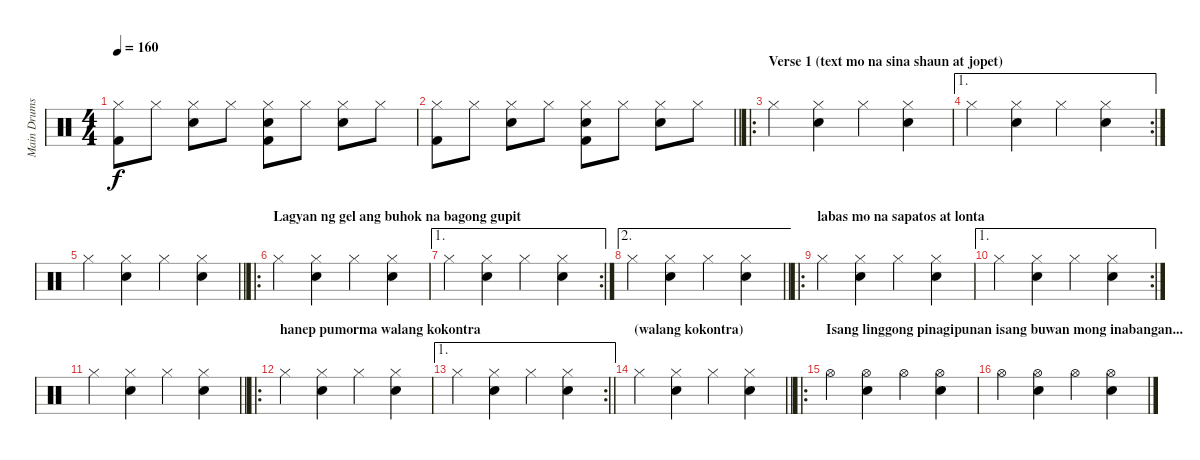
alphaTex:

\track ("Main Drumset" "Main Drums") {instrument percussion}
\staff {score}
\articulation defaults
\ts (4 4)
\tempo 160
\clef neutral
\ks c
("Hi-Hat (closed)" "Kick (hit) 2").8{dy f} "Hi-Hat (closed)".8 ("Hi-Hat (closed)" "Electric Snare (hit)").8 "Hi-Hat (closed)".8 ("Hi-Hat (closed)" "Electric Snare (hit)" "Kick (hit) 2").8 "Hi-Hat (closed)".8 ("Hi-Hat (closed)" "Electric Snare (hit)").8 "Hi-Hat (closed)".8 |
\barLineRight lightlight
("Hi-Hat (closed)" "Kick (hit) 2").8 "Hi-Hat (closed)".8 ("Hi-Hat (closed)" "Electric Snare (hit)").8 "Hi-Hat (closed)".8 ("Hi-Hat (closed)" "Electric Snare (hit)" "Kick (hit) 2").8 "Hi-Hat (closed)".8 ("Hi-Hat (closed)" "Electric Snare (hit)").8 "Hi-Hat (closed)".8 |
\ro
\section ("" "Verse 1 (text mo na sina shaun at jopet)")
"Hi-Hat (closed)".4 ("Hi-Hat (closed)" "Electric Snare (hit)").4 "Hi-Hat (closed)".4 ("Hi-Hat (closed)" "Electric Snare (hit)").4 |
\ae 1
\rc 2 "Hi-Hat (closed)".4
("Hi-Hat (closed)" "Electric Snare (hit)").4 "Hi-Hat (closed)".4 ("Hi-Hat (closed)" "Electric Snare (hit)").4 |
\barLineRight lightlight "Hi-Hat (closed)".4
("Hi-Hat (closed)" "Electric Snare (hit)").4 "Hi-Hat (closed)".4 ("Hi-Hat (closed)" "Electric Snare (hit)").4 |
\ro
\section ("" "Lagyan ng gel ang buhok na bagong gupit")
"Hi-Hat (closed)".4 ("Hi-Hat (closed)" "Electric Snare (hit)").4 "Hi-Hat (closed)".4 ("Hi-Hat (closed)" "Electric Snare (hit)").4 |
\ae 1
\rc 2 "Hi-Hat (closed)".4
("Hi-Hat (closed)" "Electric Snare (hit)").4 "Hi-Hat (closed)".4 ("Hi-Hat (closed)" "Electric Snare (hit)").4 |
\ae 2
\barLineRight lightlight "Hi-Hat (closed)".4
("Hi-Hat (closed)" "Electric Snare (hit)").4 "Hi-Hat (closed)".4 ("Hi-Hat (closed)" "Electric Snare (hit)").4 |
\ro
\section ("" "labas mo na sapatos at lonta")
"Hi-Hat (closed)".4 ("Hi-Hat (closed)" "Electric Snare (hit)").4 "Hi-Hat (closed)".4 ("Hi-Hat (closed)" "Electric Snare (hit)").4 |
\ae 1
\rc 2 "Hi-Hat (closed)".4
("Hi-Hat (closed)" "Electric Snare (hit)").4 "Hi-Hat (closed)".4 ("Hi-Hat (closed)" "Electric Snare (hit)").4 |
\barLineRight lightlight "Hi-Hat (closed)".4
("Hi-Hat (closed)" "Electric Snare (hit)").4 "Hi-Hat (closed)".4 ("Hi-Hat (closed)" "Electric Snare (hit)").4 |
\ro
\section ("" "hanep pumorma walang kokontra")
"Hi-Hat (closed)".4 ("Hi-Hat (closed)" "Electric Snare (hit)").4 "Hi-Hat (closed)".4 ("Hi-Hat (closed)" "Electric Snare (hit)").4 |
\ae 1
\rc 2
\barLineRight lightlight "Hi-Hat (closed)".4
("Hi-Hat (closed)" "Electric Snare (hit)").4 "Hi-Hat (closed)".4 ("Hi-Hat (closed)" "Electric Snare (hit)").4 |
\section ("" "(walang kokontra)")
\barLineRight lightlight "Hi-Hat (closed)".4
("Hi-Hat (closed)" "Electric Snare (hit)").4 "Hi-Hat (closed)".4 ("Hi-Hat (closed)" "Electric Snare (hit)").4 |
\ro
\section ("" "Isang linggong pinagipunan isang buwan mong inabangan...")
"Hi-Hat (open)".4 ("Hi-Hat (open)" "Electric Snare (hit)").4 "Hi-Hat (open)".4 ("Hi-Hat (open)" "Electric Snare (hit)").4 |
"Hi-Hat (open)".4 ("Hi-Hat (open)" "Electric Snare (hit)").4 "Hi-Hat (open)".4 ("Hi-Hat (open)" "Electric Snare (hit)").4
